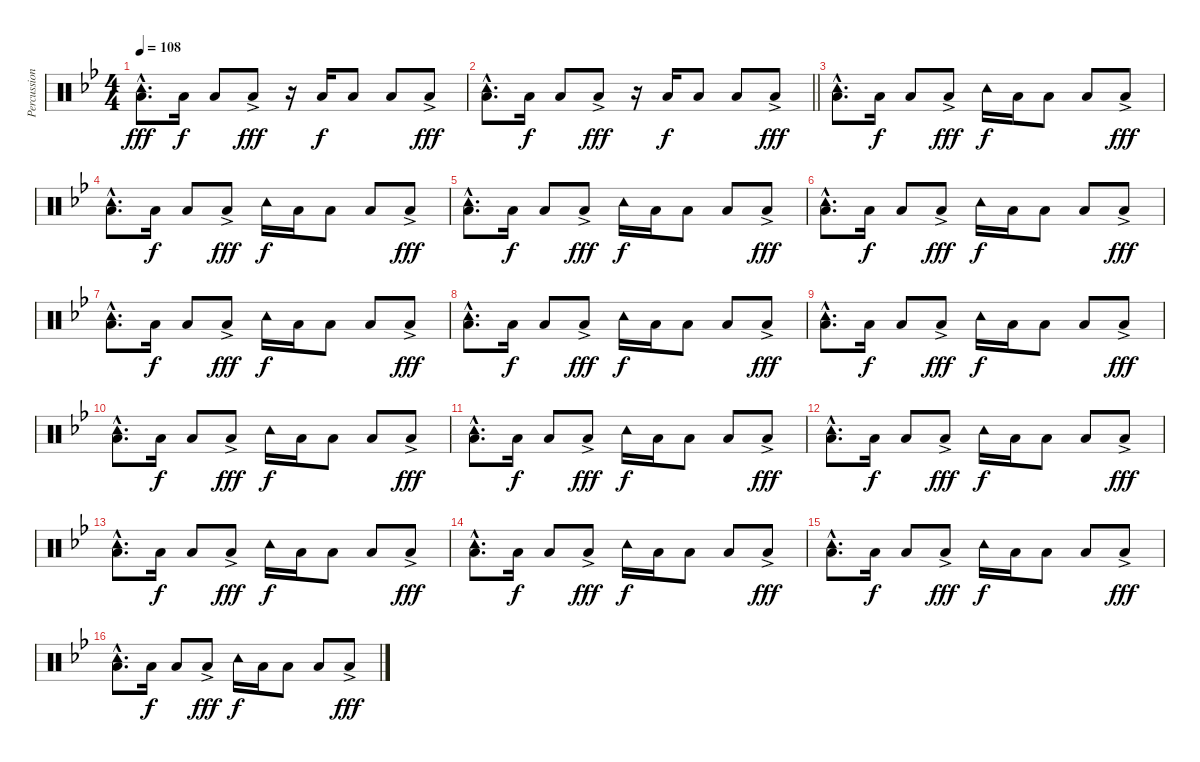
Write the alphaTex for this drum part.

\track ("Percussion" "Percussion") {instrument percussion}
\staff {score}
\articulation defaults
\ts (4 4)
\tempo 108
\clef neutral
\ks bb
("Tambourine (hit)"{hac} "Low Tom (hit)"{hac}).8{d dy fff} "Low Tom (hit)".16{dy f} "Low Tom (hit)".8 "Low Tom (hit)"{ac}.8{dy fff} r.16 "Low Tom (hit)".16{dy f} "Low Tom (hit)".8 "Low Tom (hit)".8 "Low Tom (hit)"{ac}.8{dy fff} |
\barLineRight lightlight
("Tambourine (hit)"{hac} "Low Tom (hit)"{hac}).8{d} "Low Tom (hit)".16{dy f} "Low Tom (hit)".8 "Low Tom (hit)"{ac}.8{dy fff} r.16 "Low Tom (hit)".16{dy f} "Low Tom (hit)".8 "Low Tom (hit)".8 "Low Tom (hit)"{ac}.8{dy fff} |
("Tambourine (hit)"{hac} "Low Tom (hit)"{hac}).8{d} "Low Tom (hit)".16{dy f} "Low Tom (hit)".8 "Low Tom (hit)"{ac}.8{dy fff} "Tambourine (hit)".16{dy f} "Low Tom (hit)".16 "Low Tom (hit)".8 "Low Tom (hit)".8 "Low Tom (hit)"{ac}.8{dy fff} |
("Tambourine (hit)"{hac} "Low Tom (hit)"{hac}).8{d} "Low Tom (hit)".16{dy f} "Low Tom (hit)".8 "Low Tom (hit)"{ac}.8{dy fff} "Tambourine (hit)".16{dy f} "Low Tom (hit)".16 "Low Tom (hit)".8 "Low Tom (hit)".8 "Low Tom (hit)"{ac}.8{dy fff} |
("Tambourine (hit)"{hac} "Low Tom (hit)"{hac}).8{d} "Low Tom (hit)".16{dy f} "Low Tom (hit)".8 "Low Tom (hit)"{ac}.8{dy fff} "Tambourine (hit)".16{dy f} "Low Tom (hit)".16 "Low Tom (hit)".8 "Low Tom (hit)".8 "Low Tom (hit)"{ac}.8{dy fff} |
("Tambourine (hit)"{hac} "Low Tom (hit)"{hac}).8{d} "Low Tom (hit)".16{dy f} "Low Tom (hit)".8 "Low Tom (hit)"{ac}.8{dy fff} "Tambourine (hit)".16{dy f} "Low Tom (hit)".16 "Low Tom (hit)".8 "Low Tom (hit)".8 "Low Tom (hit)"{ac}.8{dy fff} |
("Tambourine (hit)"{hac} "Low Tom (hit)"{hac}).8{d} "Low Tom (hit)".16{dy f} "Low Tom (hit)".8 "Low Tom (hit)"{ac}.8{dy fff} "Tambourine (hit)".16{dy f} "Low Tom (hit)".16 "Low Tom (hit)".8 "Low Tom (hit)".8 "Low Tom (hit)"{ac}.8{dy fff} |
("Tambourine (hit)"{hac} "Low Tom (hit)"{hac}).8{d} "Low Tom (hit)".16{dy f} "Low Tom (hit)".8 "Low Tom (hit)"{ac}.8{dy fff} "Tambourine (hit)".16{dy f} "Low Tom (hit)".16 "Low Tom (hit)".8 "Low Tom (hit)".8 "Low Tom (hit)"{ac}.8{dy fff} |
("Tambourine (hit)"{hac} "Low Tom (hit)"{hac}).8{d} "Low Tom (hit)".16{dy f} "Low Tom (hit)".8 "Low Tom (hit)"{ac}.8{dy fff} "Tambourine (hit)".16{dy f} "Low Tom (hit)".16 "Low Tom (hit)".8 "Low Tom (hit)".8 "Low Tom (hit)"{ac}.8{dy fff} |
("Tambourine (hit)"{hac} "Low Tom (hit)"{hac}).8{d} "Low Tom (hit)".16{dy f} "Low Tom (hit)".8 "Low Tom (hit)"{ac}.8{dy fff} "Tambourine (hit)".16{dy f} "Low Tom (hit)".16 "Low Tom (hit)".8 "Low Tom (hit)".8 "Low Tom (hit)"{ac}.8{dy fff} |
("Tambourine (hit)"{hac} "Low Tom (hit)"{hac}).8{d} "Low Tom (hit)".16{dy f} "Low Tom (hit)".8 "Low Tom (hit)"{ac}.8{dy fff} "Tambourine (hit)".16{dy f} "Low Tom (hit)".16 "Low Tom (hit)".8 "Low Tom (hit)".8 "Low Tom (hit)"{ac}.8{dy fff} |
("Tambourine (hit)"{hac} "Low Tom (hit)"{hac}).8{d} "Low Tom (hit)".16{dy f} "Low Tom (hit)".8 "Low Tom (hit)"{ac}.8{dy fff} "Tambourine (hit)".16{dy f} "Low Tom (hit)".16 "Low Tom (hit)".8 "Low Tom (hit)".8 "Low Tom (hit)"{ac}.8{dy fff} |
("Tambourine (hit)"{hac} "Low Tom (hit)"{hac}).8{d} "Low Tom (hit)".16{dy f} "Low Tom (hit)".8 "Low Tom (hit)"{ac}.8{dy fff} "Tambourine (hit)".16{dy f} "Low Tom (hit)".16 "Low Tom (hit)".8 "Low Tom (hit)".8 "Low Tom (hit)"{ac}.8{dy fff} |
("Tambourine (hit)"{hac} "Low Tom (hit)"{hac}).8{d} "Low Tom (hit)".16{dy f} "Low Tom (hit)".8 "Low Tom (hit)"{ac}.8{dy fff} "Tambourine (hit)".16{dy f} "Low Tom (hit)".16 "Low Tom (hit)".8 "Low Tom (hit)".8 "Low Tom (hit)"{ac}.8{dy fff} |
("Tambourine (hit)"{hac} "Low Tom (hit)"{hac}).8{d} "Low Tom (hit)".16{dy f} "Low Tom (hit)".8 "Low Tom (hit)"{ac}.8{dy fff} "Tambourine (hit)".16{dy f} "Low Tom (hit)".16 "Low Tom (hit)".8 "Low Tom (hit)".8 "Low Tom (hit)"{ac}.8{dy fff} |
("Tambourine (hit)"{hac} "Low Tom (hit)"{hac}).8{d} "Low Tom (hit)".16{dy f} "Low Tom (hit)".8 "Low Tom (hit)"{ac}.8{dy fff} "Tambourine (hit)".16{dy f} "Low Tom (hit)".16 "Low Tom (hit)".8 "Low Tom (hit)".8 "Low Tom (hit)"{ac}.8{dy fff}
